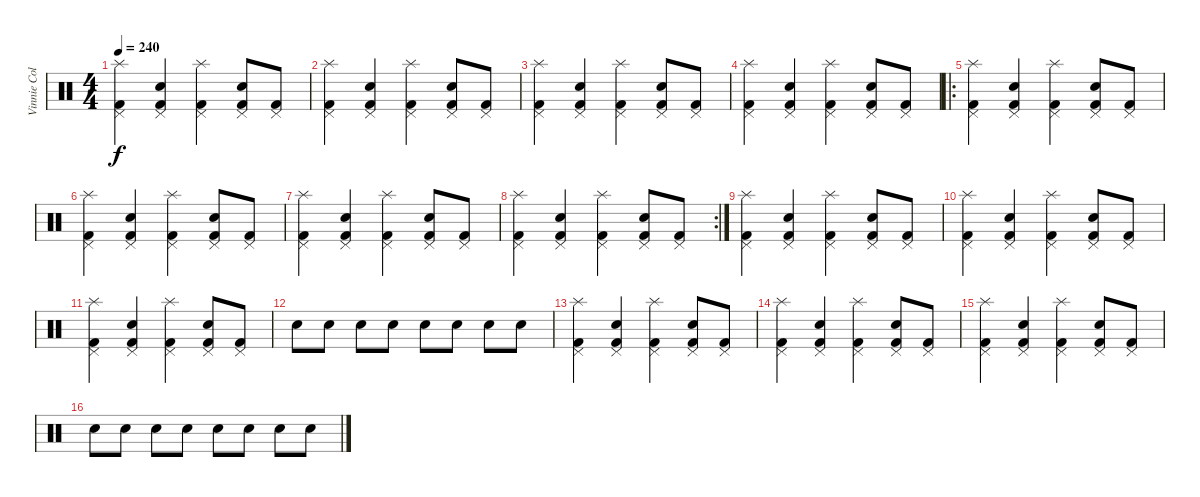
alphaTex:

\track ("Vinnie Colaiuta" "Vinnie Col") {instrument percussion}
\staff {score}
\articulation defaults
\ts (4 4)
\tempo 240
\clef neutral
\ks c
("Splash (hit)" "Kick (hit) 2" "Pedal Hi-Hat (hit)").4{dy f} ("Snare (hit) 2" "Kick (hit) 2" "Pedal Hi-Hat (hit)").4 ("Splash (hit)" "Kick (hit) 2" "Pedal Hi-Hat (hit)").4 ("Snare (hit) 2" "Kick (hit) 2" "Pedal Hi-Hat (hit)").8 ("Kick (hit) 2" "Pedal Hi-Hat (hit)").8 |
("Splash (hit)" "Kick (hit) 2" "Pedal Hi-Hat (hit)").4 ("Snare (hit) 2" "Kick (hit) 2" "Pedal Hi-Hat (hit)").4 ("Splash (hit)" "Kick (hit) 2" "Pedal Hi-Hat (hit)").4 ("Snare (hit) 2" "Kick (hit) 2" "Pedal Hi-Hat (hit)").8 ("Kick (hit) 2" "Pedal Hi-Hat (hit)").8 |
("Splash (hit)" "Kick (hit) 2" "Pedal Hi-Hat (hit)").4 ("Snare (hit) 2" "Kick (hit) 2" "Pedal Hi-Hat (hit)").4 ("Splash (hit)" "Kick (hit) 2" "Pedal Hi-Hat (hit)").4 ("Snare (hit) 2" "Kick (hit) 2" "Pedal Hi-Hat (hit)").8 ("Kick (hit) 2" "Pedal Hi-Hat (hit)").8 |
("Splash (hit)" "Kick (hit) 2" "Pedal Hi-Hat (hit)").4 ("Snare (hit) 2" "Kick (hit) 2" "Pedal Hi-Hat (hit)").4 ("Splash (hit)" "Kick (hit) 2" "Pedal Hi-Hat (hit)").4 ("Snare (hit) 2" "Kick (hit) 2" "Pedal Hi-Hat (hit)").8 ("Kick (hit) 2" "Pedal Hi-Hat (hit)").8 |
\ro
("Splash (hit)" "Kick (hit) 2" "Pedal Hi-Hat (hit)").4 ("Snare (hit) 2" "Kick (hit) 2" "Pedal Hi-Hat (hit)").4 ("Splash (hit)" "Kick (hit) 2" "Pedal Hi-Hat (hit)").4 ("Snare (hit) 2" "Kick (hit) 2" "Pedal Hi-Hat (hit)").8 ("Kick (hit) 2" "Pedal Hi-Hat (hit)").8 |
("Splash (hit)" "Kick (hit) 2" "Pedal Hi-Hat (hit)").4 ("Snare (hit) 2" "Kick (hit) 2" "Pedal Hi-Hat (hit)").4 ("Splash (hit)" "Kick (hit) 2" "Pedal Hi-Hat (hit)").4 ("Snare (hit) 2" "Kick (hit) 2" "Pedal Hi-Hat (hit)").8 ("Kick (hit) 2" "Pedal Hi-Hat (hit)").8 |
("Splash (hit)" "Kick (hit) 2" "Pedal Hi-Hat (hit)").4 ("Snare (hit) 2" "Kick (hit) 2" "Pedal Hi-Hat (hit)").4 ("Splash (hit)" "Kick (hit) 2" "Pedal Hi-Hat (hit)").4 ("Snare (hit) 2" "Kick (hit) 2" "Pedal Hi-Hat (hit)").8 ("Kick (hit) 2" "Pedal Hi-Hat (hit)").8 |
\rc 2
("Splash (hit)" "Kick (hit) 2" "Pedal Hi-Hat (hit)").4 ("Snare (hit) 2" "Kick (hit) 2" "Pedal Hi-Hat (hit)").4 ("Splash (hit)" "Kick (hit) 2" "Pedal Hi-Hat (hit)").4 ("Snare (hit) 2" "Kick (hit) 2" "Pedal Hi-Hat (hit)").8 ("Kick (hit) 2" "Pedal Hi-Hat (hit)").8 |
("Splash (hit)" "Kick (hit) 2" "Pedal Hi-Hat (hit)").4 ("Snare (hit) 2" "Kick (hit) 2" "Pedal Hi-Hat (hit)").4 ("Splash (hit)" "Kick (hit) 2" "Pedal Hi-Hat (hit)").4 ("Snare (hit) 2" "Kick (hit) 2" "Pedal Hi-Hat (hit)").8 ("Kick (hit) 2" "Pedal Hi-Hat (hit)").8 |
("Splash (hit)" "Kick (hit) 2" "Pedal Hi-Hat (hit)").4 ("Snare (hit) 2" "Kick (hit) 2" "Pedal Hi-Hat (hit)").4 ("Splash (hit)" "Kick (hit) 2" "Pedal Hi-Hat (hit)").4 ("Snare (hit) 2" "Kick (hit) 2" "Pedal Hi-Hat (hit)").8 ("Kick (hit) 2" "Pedal Hi-Hat (hit)").8 |
("Splash (hit)" "Kick (hit) 2" "Pedal Hi-Hat (hit)").4 ("Snare (hit) 2" "Kick (hit) 2" "Pedal Hi-Hat (hit)").4 ("Splash (hit)" "Kick (hit) 2" "Pedal Hi-Hat (hit)").4 ("Snare (hit) 2" "Kick (hit) 2" "Pedal Hi-Hat (hit)").8 ("Kick (hit) 2" "Pedal Hi-Hat (hit)").8 |
"Snare (hit) 2".8 "Snare (hit) 2".8 "Snare (hit) 2".8 "Snare (hit) 2".8 "Snare (hit) 2".8 "Snare (hit) 2".8 "Snare (hit) 2".8 "Snare (hit) 2".8 |
("Splash (hit)" "Kick (hit) 2" "Pedal Hi-Hat (hit)").4 ("Snare (hit) 2" "Kick (hit) 2" "Pedal Hi-Hat (hit)").4 ("Splash (hit)" "Kick (hit) 2" "Pedal Hi-Hat (hit)").4 ("Snare (hit) 2" "Kick (hit) 2" "Pedal Hi-Hat (hit)").8 ("Kick (hit) 2" "Pedal Hi-Hat (hit)").8 |
("Splash (hit)" "Kick (hit) 2" "Pedal Hi-Hat (hit)").4 ("Snare (hit) 2" "Kick (hit) 2" "Pedal Hi-Hat (hit)").4 ("Splash (hit)" "Kick (hit) 2" "Pedal Hi-Hat (hit)").4 ("Snare (hit) 2" "Kick (hit) 2" "Pedal Hi-Hat (hit)").8 ("Kick (hit) 2" "Pedal Hi-Hat (hit)").8 |
("Splash (hit)" "Kick (hit) 2" "Pedal Hi-Hat (hit)").4 ("Snare (hit) 2" "Kick (hit) 2" "Pedal Hi-Hat (hit)").4 ("Splash (hit)" "Kick (hit) 2" "Pedal Hi-Hat (hit)").4 ("Snare (hit) 2" "Kick (hit) 2" "Pedal Hi-Hat (hit)").8 ("Kick (hit) 2" "Pedal Hi-Hat (hit)").8 |
"Snare (hit) 2".8 "Snare (hit) 2".8 "Snare (hit) 2".8 "Snare (hit) 2".8 "Snare (hit) 2".8 "Snare (hit) 2".8 "Snare (hit) 2".8 "Snare (hit) 2".8
